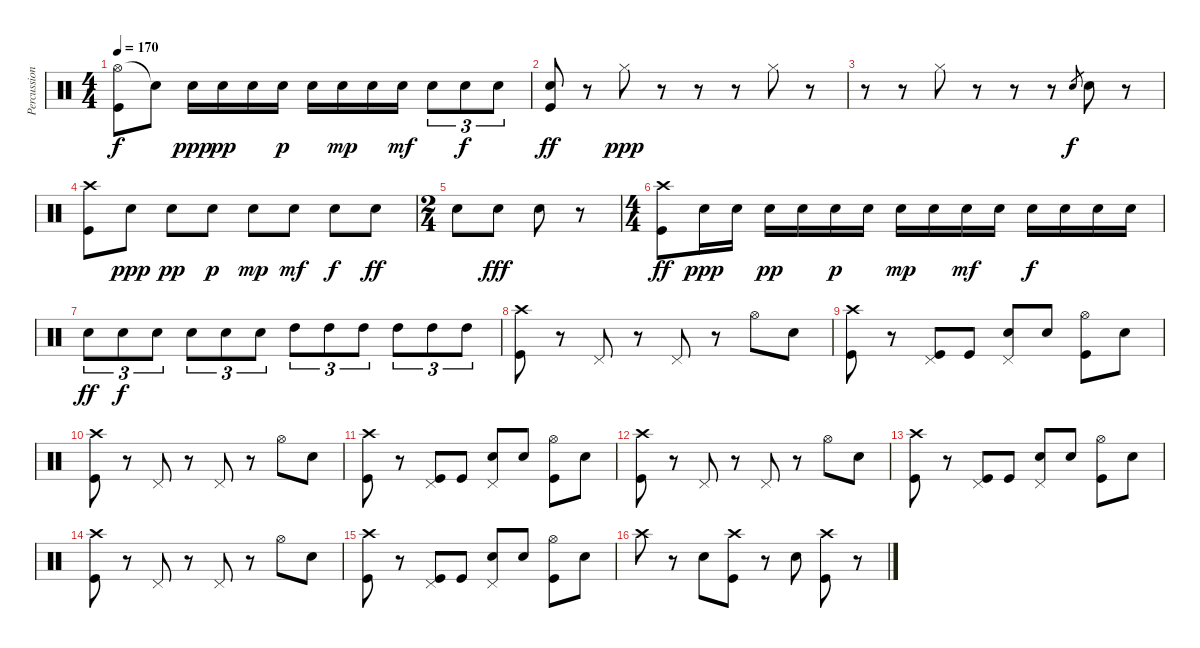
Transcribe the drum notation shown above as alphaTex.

\track ("Percussion" "Percussion") {instrument percussion}
\staff {score}
\articulation defaults
\ts (4 4)
\tempo 170
\clef neutral
\ks c
("Hi-Hat (open)" "Kick (hit)").8{dy f} "Snare (hit)"{t}.8 "Snare (hit) 2".16{dy ppp} "Snare (hit) 2".16{dy pp} "Snare (hit) 2".16 "Snare (hit) 2".16{dy p} "Snare (hit) 2".16 "Snare (hit) 2".16{dy mp} "Snare (hit) 2".16 "Snare (hit) 2".16{dy mf} "Snare (hit) 2".8{tu (3 2)} "Snare (hit) 2".8{tu (3 2) dy f} "Snare (hit) 2".8{tu (3 2)} |
("Snare (hit) 2" "Kick (hit)").8{dy ff} r.8 "Hi-Hat (closed)".8{dy ppp} r.8 r.8 r.8 "Hi-Hat (closed)".8 r.8 |
r.8 r.8 "Hi-Hat (closed)".8 r.8 r.8 r.8 "Snare (hit) 2".8{gr dy f} "Snare (hit) 2".8 r.8 |
("Crash high (hit)" "Kick (hit)").8 "Snare (hit) 2".8{dy ppp} "Snare (hit) 2".8{dy pp} "Snare (hit) 2".8{dy p} "Snare (hit) 2".8{dy mp} "Snare (hit) 2".8{dy mf} "Snare (hit) 2".8{dy f} "Snare (hit) 2".8{dy ff} |
\ts (2 4)
"Snare (hit) 2".8 "Snare (hit) 2".8{dy fff} "Snare (hit) 2".8 r.8 |
\ts (4 4)
("Crash high (hit)" "Kick (hit)").8{dy ff} "Snare (hit) 2".16{dy ppp} "Snare (hit) 2".16 "Snare (hit) 2".16{dy pp} "Snare (hit) 2".16 "Snare (hit) 2".16{dy p} "Snare (hit) 2".16 "Snare (hit) 2".16{dy mp} "Snare (hit) 2".16 "Snare (hit) 2".16{dy mf} "Snare (hit) 2".16 "Snare (hit) 2".16{dy f} "Snare (hit) 2".16 "Snare (hit) 2".16 "Snare (hit) 2".16 |
"Snare (hit) 2".8{tu (3 2) dy ff} "Snare (hit) 2".8{tu (3 2) dy f} "Snare (hit) 2".8{tu (3 2)} "Snare (hit) 2".8{tu (3 2)} "Snare (hit) 2".8{tu (3 2)} "Snare (hit) 2".8{tu (3 2)} "High Tom (hit)".8{tu (3 2)} "High Tom (hit)".8{tu (3 2)} "High Tom (hit)".8{tu (3 2)} "High Tom (hit)".8{tu (3 2)} "High Tom (hit)".8{tu (3 2)} "High Tom (hit)".8{tu (3 2)} |
("Crash high (hit)" "Kick (hit)").8 r.8 "Pedal Hi-Hat (hit)".8 r.8 "Pedal Hi-Hat (hit)".8 r.8 "Hi-Hat (open)".8 "Snare (hit) 2".8 |
("Crash high (hit)" "Kick (hit)").8 r.8 ("Pedal Hi-Hat (hit)" "Kick (hit)").8 "Kick (hit)".8 ("Snare (hit) 2" "Pedal Hi-Hat (hit)").8 "Snare (hit) 2".8 ("Hi-Hat (open)" "Kick (hit)").8 "Snare (hit) 2".8 |
("Crash high (hit)" "Kick (hit)").8 r.8 "Pedal Hi-Hat (hit)".8 r.8 "Pedal Hi-Hat (hit)".8 r.8 "Hi-Hat (open)".8 "Snare (hit) 2".8 |
("Crash high (hit)" "Kick (hit)").8 r.8 ("Pedal Hi-Hat (hit)" "Kick (hit)").8 "Kick (hit)".8 ("Snare (hit) 2" "Pedal Hi-Hat (hit)").8 "Snare (hit) 2".8 ("Hi-Hat (open)" "Kick (hit)").8 "Snare (hit) 2".8 |
("Crash high (hit)" "Kick (hit)").8 r.8 "Pedal Hi-Hat (hit)".8 r.8 "Pedal Hi-Hat (hit)".8 r.8 "Hi-Hat (open)".8 "Snare (hit) 2".8 |
("Crash high (hit)" "Kick (hit)").8 r.8 ("Pedal Hi-Hat (hit)" "Kick (hit)").8 "Kick (hit)".8 ("Snare (hit) 2" "Pedal Hi-Hat (hit)").8 "Snare (hit) 2".8 ("Hi-Hat (open)" "Kick (hit)").8 "Snare (hit) 2".8 |
("Crash high (hit)" "Kick (hit)").8 r.8 "Pedal Hi-Hat (hit)".8 r.8 "Pedal Hi-Hat (hit)".8 r.8 "Hi-Hat (open)".8 "Snare (hit) 2".8 |
("Crash high (hit)" "Kick (hit)").8 r.8 ("Pedal Hi-Hat (hit)" "Kick (hit)").8 "Kick (hit)".8 ("Snare (hit) 2" "Pedal Hi-Hat (hit)").8 "Snare (hit) 2".8 ("Hi-Hat (open)" "Kick (hit)").8 "Snare (hit) 2".8 |
"Crash high (hit)".8 r.8 "Snare (hit) 2".8 ("Crash high (hit)" "Kick (hit)").8 r.8 "Snare (hit) 2".8 ("Crash high (hit)" "Kick (hit)").8 r.8
